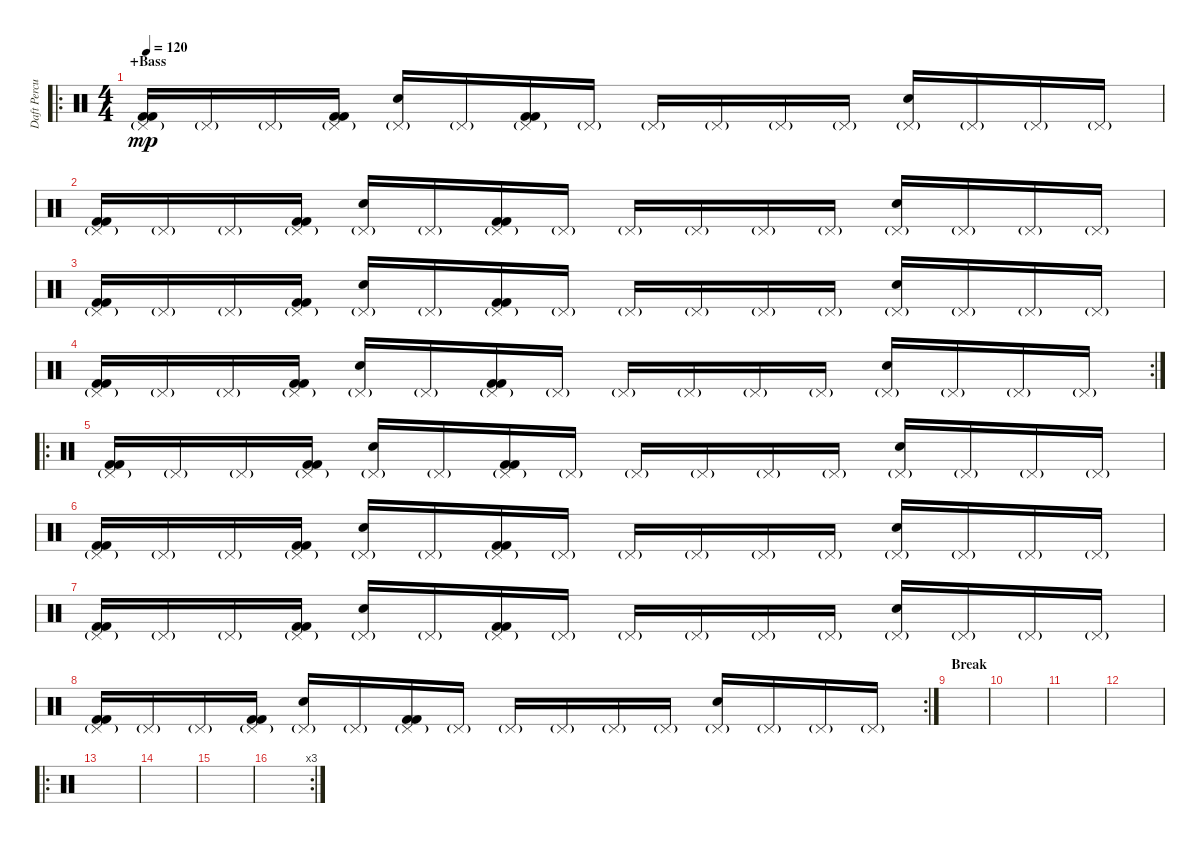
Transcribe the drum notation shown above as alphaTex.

\track ("Daft Percussion 2" "Daft Percu") {instrument percussion}
\staff {score}
\articulation defaults
\ro
\ts (4 4)
\section ("" "+Bass")
\tempo 120
\clef neutral
\ks c
("Pedal Hi-Hat (hit)"{g} "Kick (hit) 2" "Kick (hit) 2").16{dy mp} "Pedal Hi-Hat (hit)"{g}.16 "Pedal Hi-Hat (hit)"{g}.16 ("Pedal Hi-Hat (hit)"{g} "Kick (hit) 2" "Kick (hit) 2").16 ("Pedal Hi-Hat (hit)"{g} "Snare (hit) 2").16 "Pedal Hi-Hat (hit)"{g}.16 ("Pedal Hi-Hat (hit)"{g} "Kick (hit) 2" "Kick (hit) 2").16 "Pedal Hi-Hat (hit)"{g}.16 "Pedal Hi-Hat (hit)"{g}.16 "Pedal Hi-Hat (hit)"{g}.16 "Pedal Hi-Hat (hit)"{g}.16 "Pedal Hi-Hat (hit)"{g}.16 ("Pedal Hi-Hat (hit)"{g} "Snare (hit) 2").16 "Pedal Hi-Hat (hit)"{g}.16 "Pedal Hi-Hat (hit)"{g}.16 "Pedal Hi-Hat (hit)"{g}.16 |
("Pedal Hi-Hat (hit)"{g} "Kick (hit) 2" "Kick (hit) 2").16 "Pedal Hi-Hat (hit)"{g}.16 "Pedal Hi-Hat (hit)"{g}.16 ("Pedal Hi-Hat (hit)"{g} "Kick (hit) 2" "Kick (hit) 2").16 ("Pedal Hi-Hat (hit)"{g} "Snare (hit) 2").16 "Pedal Hi-Hat (hit)"{g}.16 ("Pedal Hi-Hat (hit)"{g} "Kick (hit) 2" "Kick (hit) 2").16 "Pedal Hi-Hat (hit)"{g}.16 "Pedal Hi-Hat (hit)"{g}.16 "Pedal Hi-Hat (hit)"{g}.16 "Pedal Hi-Hat (hit)"{g}.16 "Pedal Hi-Hat (hit)"{g}.16 ("Pedal Hi-Hat (hit)"{g} "Snare (hit) 2").16 "Pedal Hi-Hat (hit)"{g}.16 "Pedal Hi-Hat (hit)"{g}.16 "Pedal Hi-Hat (hit)"{g}.16 |
("Pedal Hi-Hat (hit)"{g} "Kick (hit) 2" "Kick (hit) 2").16 "Pedal Hi-Hat (hit)"{g}.16 "Pedal Hi-Hat (hit)"{g}.16 ("Pedal Hi-Hat (hit)"{g} "Kick (hit) 2" "Kick (hit) 2").16 ("Pedal Hi-Hat (hit)"{g} "Snare (hit) 2").16 "Pedal Hi-Hat (hit)"{g}.16 ("Pedal Hi-Hat (hit)"{g} "Kick (hit) 2" "Kick (hit) 2").16 "Pedal Hi-Hat (hit)"{g}.16 "Pedal Hi-Hat (hit)"{g}.16 "Pedal Hi-Hat (hit)"{g}.16 "Pedal Hi-Hat (hit)"{g}.16 "Pedal Hi-Hat (hit)"{g}.16 ("Pedal Hi-Hat (hit)"{g} "Snare (hit) 2").16 "Pedal Hi-Hat (hit)"{g}.16 "Pedal Hi-Hat (hit)"{g}.16 "Pedal Hi-Hat (hit)"{g}.16 |
\rc 2
("Pedal Hi-Hat (hit)"{g} "Kick (hit) 2" "Kick (hit) 2").16 "Pedal Hi-Hat (hit)"{g}.16 "Pedal Hi-Hat (hit)"{g}.16 ("Pedal Hi-Hat (hit)"{g} "Kick (hit) 2" "Kick (hit) 2").16 ("Pedal Hi-Hat (hit)"{g} "Snare (hit) 2").16 "Pedal Hi-Hat (hit)"{g}.16 ("Pedal Hi-Hat (hit)"{g} "Kick (hit) 2" "Kick (hit) 2").16 "Pedal Hi-Hat (hit)"{g}.16 "Pedal Hi-Hat (hit)"{g}.16 "Pedal Hi-Hat (hit)"{g}.16 "Pedal Hi-Hat (hit)"{g}.16 "Pedal Hi-Hat (hit)"{g}.16 ("Pedal Hi-Hat (hit)"{g} "Snare (hit) 2").16 "Pedal Hi-Hat (hit)"{g}.16 "Pedal Hi-Hat (hit)"{g}.16 "Pedal Hi-Hat (hit)"{g}.16 |
\ro
("Pedal Hi-Hat (hit)"{g} "Kick (hit) 2" "Kick (hit) 2").16 "Pedal Hi-Hat (hit)"{g}.16 "Pedal Hi-Hat (hit)"{g}.16 ("Pedal Hi-Hat (hit)"{g} "Kick (hit) 2" "Kick (hit) 2").16 ("Pedal Hi-Hat (hit)"{g} "Snare (hit) 2").16 "Pedal Hi-Hat (hit)"{g}.16 ("Pedal Hi-Hat (hit)"{g} "Kick (hit) 2" "Kick (hit) 2").16 "Pedal Hi-Hat (hit)"{g}.16 "Pedal Hi-Hat (hit)"{g}.16 "Pedal Hi-Hat (hit)"{g}.16 "Pedal Hi-Hat (hit)"{g}.16 "Pedal Hi-Hat (hit)"{g}.16 ("Pedal Hi-Hat (hit)"{g} "Snare (hit) 2").16 "Pedal Hi-Hat (hit)"{g}.16 "Pedal Hi-Hat (hit)"{g}.16 "Pedal Hi-Hat (hit)"{g}.16 |
("Pedal Hi-Hat (hit)"{g} "Kick (hit) 2" "Kick (hit) 2").16 "Pedal Hi-Hat (hit)"{g}.16 "Pedal Hi-Hat (hit)"{g}.16 ("Pedal Hi-Hat (hit)"{g} "Kick (hit) 2" "Kick (hit) 2").16 ("Pedal Hi-Hat (hit)"{g} "Snare (hit) 2").16 "Pedal Hi-Hat (hit)"{g}.16 ("Pedal Hi-Hat (hit)"{g} "Kick (hit) 2" "Kick (hit) 2").16 "Pedal Hi-Hat (hit)"{g}.16 "Pedal Hi-Hat (hit)"{g}.16 "Pedal Hi-Hat (hit)"{g}.16 "Pedal Hi-Hat (hit)"{g}.16 "Pedal Hi-Hat (hit)"{g}.16 ("Pedal Hi-Hat (hit)"{g} "Snare (hit) 2").16 "Pedal Hi-Hat (hit)"{g}.16 "Pedal Hi-Hat (hit)"{g}.16 "Pedal Hi-Hat (hit)"{g}.16 |
("Pedal Hi-Hat (hit)"{g} "Kick (hit) 2" "Kick (hit) 2").16 "Pedal Hi-Hat (hit)"{g}.16 "Pedal Hi-Hat (hit)"{g}.16 ("Pedal Hi-Hat (hit)"{g} "Kick (hit) 2" "Kick (hit) 2").16 ("Pedal Hi-Hat (hit)"{g} "Snare (hit) 2").16 "Pedal Hi-Hat (hit)"{g}.16 ("Pedal Hi-Hat (hit)"{g} "Kick (hit) 2" "Kick (hit) 2").16 "Pedal Hi-Hat (hit)"{g}.16 "Pedal Hi-Hat (hit)"{g}.16 "Pedal Hi-Hat (hit)"{g}.16 "Pedal Hi-Hat (hit)"{g}.16 "Pedal Hi-Hat (hit)"{g}.16 ("Pedal Hi-Hat (hit)"{g} "Snare (hit) 2").16 "Pedal Hi-Hat (hit)"{g}.16 "Pedal Hi-Hat (hit)"{g}.16 "Pedal Hi-Hat (hit)"{g}.16 |
\rc 2
("Pedal Hi-Hat (hit)"{g} "Kick (hit) 2" "Kick (hit) 2").16 "Pedal Hi-Hat (hit)"{g}.16 "Pedal Hi-Hat (hit)"{g}.16 ("Pedal Hi-Hat (hit)"{g} "Kick (hit) 2" "Kick (hit) 2").16 ("Pedal Hi-Hat (hit)"{g} "Snare (hit) 2").16 "Pedal Hi-Hat (hit)"{g}.16 ("Pedal Hi-Hat (hit)"{g} "Kick (hit) 2" "Kick (hit) 2").16 "Pedal Hi-Hat (hit)"{g}.16 "Pedal Hi-Hat (hit)"{g}.16 "Pedal Hi-Hat (hit)"{g}.16 "Pedal Hi-Hat (hit)"{g}.16 "Pedal Hi-Hat (hit)"{g}.16 ("Pedal Hi-Hat (hit)"{g} "Snare (hit) 2").16 "Pedal Hi-Hat (hit)"{g}.16 "Pedal Hi-Hat (hit)"{g}.16 "Pedal Hi-Hat (hit)"{g}.16 |
\section ("" "Break")
|
|
|
|
\ro
|
|
|
\rc 3
